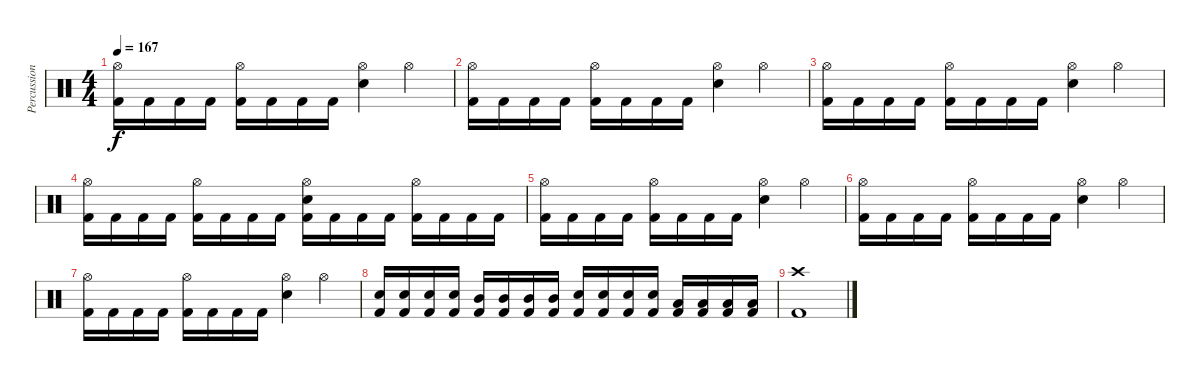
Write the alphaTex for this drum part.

\track ("Percussion" "Percussion") {instrument percussion}
\staff {score}
\articulation defaults
\ts (4 4)
\tempo 167
\clef neutral
\ks c
("Hi-Hat (open)" "Kick (hit) 2").16{dy f} "Kick (hit) 2".16 "Kick (hit) 2".16 "Kick (hit) 2".16 ("Hi-Hat (open)" "Kick (hit) 2").16 "Kick (hit) 2".16 "Kick (hit) 2".16 "Kick (hit) 2".16 ("Hi-Hat (open)" "Snare (hit) 2").4 "Hi-Hat (open)".4 |
("Hi-Hat (open)" "Kick (hit) 2").16 "Kick (hit) 2".16 "Kick (hit) 2".16 "Kick (hit) 2".16 ("Hi-Hat (open)" "Kick (hit) 2").16 "Kick (hit) 2".16 "Kick (hit) 2".16 "Kick (hit) 2".16 ("Hi-Hat (open)" "Snare (hit) 2").4 "Hi-Hat (open)".4 |
("Hi-Hat (open)" "Kick (hit) 2").16 "Kick (hit) 2".16 "Kick (hit) 2".16 "Kick (hit) 2".16 ("Hi-Hat (open)" "Kick (hit) 2").16 "Kick (hit) 2".16 "Kick (hit) 2".16 "Kick (hit) 2".16 ("Hi-Hat (open)" "Snare (hit) 2").4 "Hi-Hat (open)".4 |
("Hi-Hat (open)" "Kick (hit) 2").16 "Kick (hit) 2".16 "Kick (hit) 2".16 "Kick (hit) 2".16 ("Hi-Hat (open)" "Kick (hit) 2").16 "Kick (hit) 2".16 "Kick (hit) 2".16 "Kick (hit) 2".16 ("Hi-Hat (open)" "Snare (hit) 2" "Kick (hit) 2").16 "Kick (hit) 2".16 "Kick (hit) 2".16 "Kick (hit) 2".16 ("Hi-Hat (open)" "Kick (hit) 2").16 "Kick (hit) 2".16 "Kick (hit) 2".16 "Kick (hit) 2".16 |
("Hi-Hat (open)" "Kick (hit) 2").16 "Kick (hit) 2".16 "Kick (hit) 2".16 "Kick (hit) 2".16 ("Hi-Hat (open)" "Kick (hit) 2").16 "Kick (hit) 2".16 "Kick (hit) 2".16 "Kick (hit) 2".16 ("Hi-Hat (open)" "Snare (hit) 2").4 "Hi-Hat (open)".4 |
("Hi-Hat (open)" "Kick (hit) 2").16 "Kick (hit) 2".16 "Kick (hit) 2".16 "Kick (hit) 2".16 ("Hi-Hat (open)" "Kick (hit) 2").16 "Kick (hit) 2".16 "Kick (hit) 2".16 "Kick (hit) 2".16 ("Hi-Hat (open)" "Snare (hit) 2").4 "Hi-Hat (open)".4 |
("Hi-Hat (open)" "Kick (hit) 2").16 "Kick (hit) 2".16 "Kick (hit) 2".16 "Kick (hit) 2".16 ("Hi-Hat (open)" "Kick (hit) 2").16 "Kick (hit) 2".16 "Kick (hit) 2".16 "Kick (hit) 2".16 ("Hi-Hat (open)" "Snare (hit) 2").4 "Hi-Hat (open)".4 |
("Snare (hit) 2" "Kick (hit) 2").16 ("Snare (hit) 2" "Kick (hit) 2").16 ("Snare (hit) 2" "Kick (hit) 2").16 ("Snare (hit) 2" "Kick (hit) 2").16 ("Mid Tom (hit)" "Kick (hit) 2").16 ("Mid Tom (hit)" "Kick (hit) 2").16 ("Mid Tom (hit)" "Kick (hit) 2").16 ("Mid Tom (hit)" "Kick (hit) 2").16 ("Snare (hit) 2" "Kick (hit) 2").16 ("Snare (hit) 2" "Kick (hit) 2").16 ("Snare (hit) 2" "Kick (hit) 2").16 ("Snare (hit) 2" "Kick (hit) 2").16 ("Low Tom (hit)" "Kick (hit) 2").16 ("Low Tom (hit)" "Kick (hit) 2").16 ("Low Tom (hit)" "Kick (hit) 2").16 ("Low Tom (hit)" "Kick (hit) 2").16 |
("Crash high (hit)" "Kick (hit) 2").1
